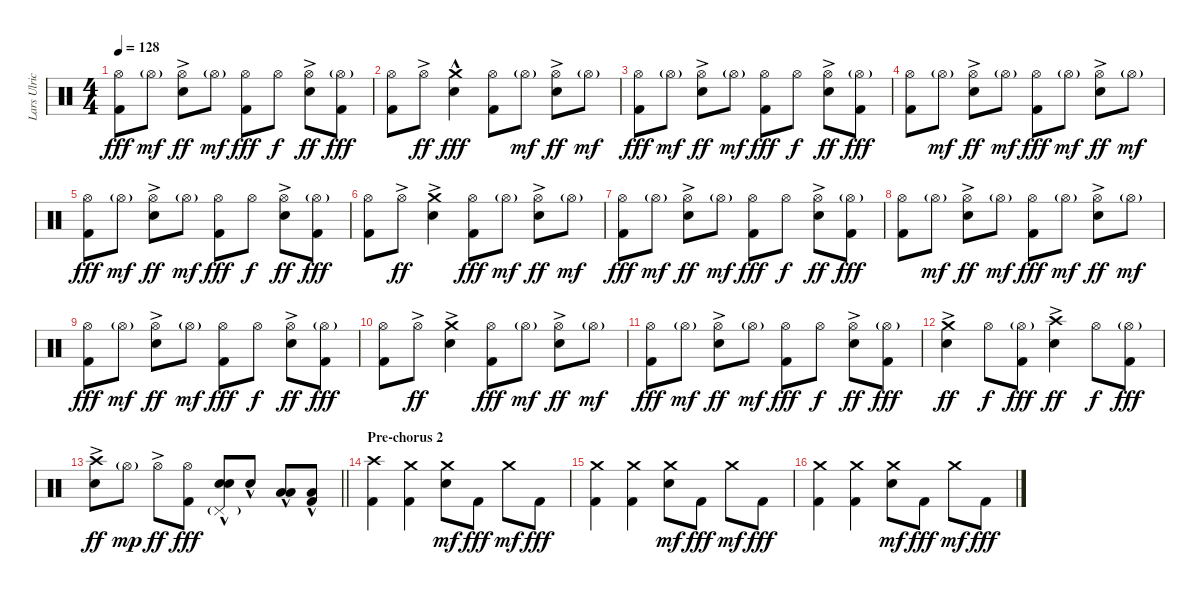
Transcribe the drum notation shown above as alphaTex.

\track ("Lars Ulrich (Drums)" "Lars Ulric") {instrument percussion}
\staff {score}
\articulation defaults
\ts (4 4)
\tempo 128
\clef neutral
\ks c
("Hi-Hat (open)" "Kick (hit) 2").8{dy fff} "Hi-Hat (open)"{g}.8{dy mf} ("Hi-Hat (open)"{ac} "Electric Snare (hit)"{ac}).8{dy ff} "Hi-Hat (open)"{g}.8{dy mf} ("Hi-Hat (open)" "Kick (hit) 2").8{dy fff} "Hi-Hat (open)".8{dy f} ("Hi-Hat (open)"{ac} "Electric Snare (hit)"{ac}).8{dy ff} ("Hi-Hat (open)"{g} "Kick (hit) 2").8{dy fff} |
("Hi-Hat (open)" "Kick (hit) 2").8 "Hi-Hat (open)"{ac}.8{dy ff} ("Crash medium (hit)" "Electric Snare (hit)"{hac}).4{dy fff} ("Hi-Hat (open)" "Kick (hit) 2").8 "Hi-Hat (open)"{g}.8{dy mf} ("Hi-Hat (open)"{ac} "Electric Snare (hit)"{ac}).8{dy ff} "Hi-Hat (open)"{g}.8{dy mf} |
("Hi-Hat (open)" "Kick (hit) 2").8{dy fff} "Hi-Hat (open)"{g}.8{dy mf} ("Hi-Hat (open)"{ac} "Electric Snare (hit)"{ac}).8{dy ff} "Hi-Hat (open)"{g}.8{dy mf} ("Hi-Hat (open)" "Kick (hit) 2").8{dy fff} "Hi-Hat (open)".8{dy f} ("Hi-Hat (open)"{ac} "Electric Snare (hit)"{ac}).8{dy ff} ("Hi-Hat (open)"{g} "Kick (hit) 2").8{dy fff} |
("Hi-Hat (open)" "Kick (hit) 2").8 "Hi-Hat (open)"{g}.8{dy mf} ("Hi-Hat (open)"{ac} "Electric Snare (hit)"{ac}).8{dy ff} "Hi-Hat (open)"{g}.8{dy mf} ("Hi-Hat (open)" "Kick (hit) 2").8{dy fff} "Hi-Hat (open)"{g}.8{dy mf} ("Hi-Hat (open)"{ac} "Electric Snare (hit)"{ac}).8{dy ff} "Hi-Hat (open)"{g}.8{dy mf} |
("Hi-Hat (open)" "Kick (hit) 2").8{dy fff} "Hi-Hat (open)"{g}.8{dy mf} ("Hi-Hat (open)"{ac} "Electric Snare (hit)"{ac}).8{dy ff} "Hi-Hat (open)"{g}.8{dy mf} ("Hi-Hat (open)" "Kick (hit) 2").8{dy fff} "Hi-Hat (open)".8{dy f} ("Hi-Hat (open)"{ac} "Electric Snare (hit)"{ac}).8{dy ff} ("Hi-Hat (open)"{g} "Kick (hit) 2").8{dy fff} |
("Hi-Hat (open)" "Kick (hit) 2").8 "Hi-Hat (open)"{ac}.8{dy ff} ("Crash medium (hit)" "Electric Snare (hit)"{ac}).4 ("Hi-Hat (open)" "Kick (hit) 2").8{dy fff} "Hi-Hat (open)"{g}.8{dy mf} ("Hi-Hat (open)"{ac} "Electric Snare (hit)"{ac}).8{dy ff} "Hi-Hat (open)"{g}.8{dy mf} |
("Hi-Hat (open)" "Kick (hit) 2").8{dy fff} "Hi-Hat (open)"{g}.8{dy mf} ("Hi-Hat (open)"{ac} "Electric Snare (hit)"{ac}).8{dy ff} "Hi-Hat (open)"{g}.8{dy mf} ("Hi-Hat (open)" "Kick (hit) 2").8{dy fff} "Hi-Hat (open)".8{dy f} ("Hi-Hat (open)"{ac} "Electric Snare (hit)"{ac}).8{dy ff} ("Hi-Hat (open)"{g} "Kick (hit) 2").8{dy fff} |
("Hi-Hat (open)" "Kick (hit) 2").8 "Hi-Hat (open)"{g}.8{dy mf} ("Hi-Hat (open)"{ac} "Electric Snare (hit)"{ac}).8{dy ff} "Hi-Hat (open)"{g}.8{dy mf} ("Hi-Hat (open)" "Kick (hit) 2").8{dy fff} "Hi-Hat (open)"{g}.8{dy mf} ("Hi-Hat (open)"{ac} "Electric Snare (hit)"{ac}).8{dy ff} "Hi-Hat (open)"{g}.8{dy mf} |
("Hi-Hat (open)" "Kick (hit) 2").8{dy fff} "Hi-Hat (open)"{g}.8{dy mf} ("Hi-Hat (open)"{ac} "Electric Snare (hit)"{ac}).8{dy ff} "Hi-Hat (open)"{g}.8{dy mf} ("Hi-Hat (open)" "Kick (hit) 2").8{dy fff} "Hi-Hat (open)".8{dy f} ("Hi-Hat (open)"{ac} "Electric Snare (hit)"{ac}).8{dy ff} ("Hi-Hat (open)"{g} "Kick (hit) 2").8{dy fff} |
("Hi-Hat (open)" "Kick (hit) 2").8 "Hi-Hat (open)"{ac}.8{dy ff} ("Crash medium (hit)" "Electric Snare (hit)"{ac}).4 ("Hi-Hat (open)" "Kick (hit) 2").8{dy fff} "Hi-Hat (open)"{g}.8{dy mf} ("Hi-Hat (open)"{ac} "Electric Snare (hit)"{ac}).8{dy ff} "Hi-Hat (open)"{g}.8{dy mf} |
("Hi-Hat (open)" "Kick (hit) 2").8{dy fff} "Hi-Hat (open)"{g}.8{dy mf} ("Hi-Hat (open)"{ac} "Electric Snare (hit)"{ac}).8{dy ff} "Hi-Hat (open)"{g}.8{dy mf} ("Hi-Hat (open)" "Kick (hit) 2").8{dy fff} "Hi-Hat (open)".8{dy f} ("Hi-Hat (open)"{ac} "Electric Snare (hit)"{ac}).8{dy ff} ("Hi-Hat (open)"{g} "Kick (hit) 2").8{dy fff} |
("Crash medium (hit)" "Electric Snare (hit)"{ac}).4{dy ff} "Hi-Hat (open)".8{dy f} ("Hi-Hat (open)"{g} "Kick (hit) 2").8{dy fff} ("Crash high (hit)" "Electric Snare (hit)"{ac}).4{dy ff} "Hi-Hat (open)".8{dy f} ("Hi-Hat (open)"{g} "Kick (hit) 2").8{dy fff} |
\barLineRight lightlight
("Crash high (hit)" "Electric Snare (hit)"{ac}).8{dy ff} "Hi-Hat (open)"{g}.8{dy mp} "Hi-Hat (open)"{ac}.8{dy ff} ("Hi-Hat (open)" "Kick (hit) 2").8{dy fff} ("Pedal Hi-Hat (hit)"{g} "Electric Snare (hit)"{hac} "Electric Snare (hit)"{hac}).8{bd 120} "Electric Snare (hit)"{hac}.8 ("Low Tom (hit)"{hac} "Low Tom (hit)"{hac}).8{bu 120} ("Low Tom (hit)"{hac} "Kick (hit) 2").8 |
\section ("" "Pre-chorus 2")
("Crash high (hit)" "Kick (hit) 2").4 ("Crash medium (hit)" "Kick (hit) 2").4 ("Crash medium (hit)" "Electric Snare (hit)").8{dy mf} "Kick (hit) 2".8{dy fff} "Crash medium (hit)".8{dy mf} "Kick (hit) 2".8{dy fff} |
("Crash medium (hit)" "Kick (hit) 2").4 ("Crash medium (hit)" "Kick (hit) 2").4 ("Crash medium (hit)" "Electric Snare (hit)").8{dy mf} "Kick (hit) 2".8{dy fff} "Crash medium (hit)".8{dy mf} "Kick (hit) 2".8{dy fff} |
("Crash medium (hit)" "Kick (hit) 2").4 ("Crash medium (hit)" "Kick (hit) 2").4 ("Crash medium (hit)" "Electric Snare (hit)").8{dy mf} "Kick (hit) 2".8{dy fff} "Crash medium (hit)".8{dy mf} "Kick (hit) 2".8{dy fff}
